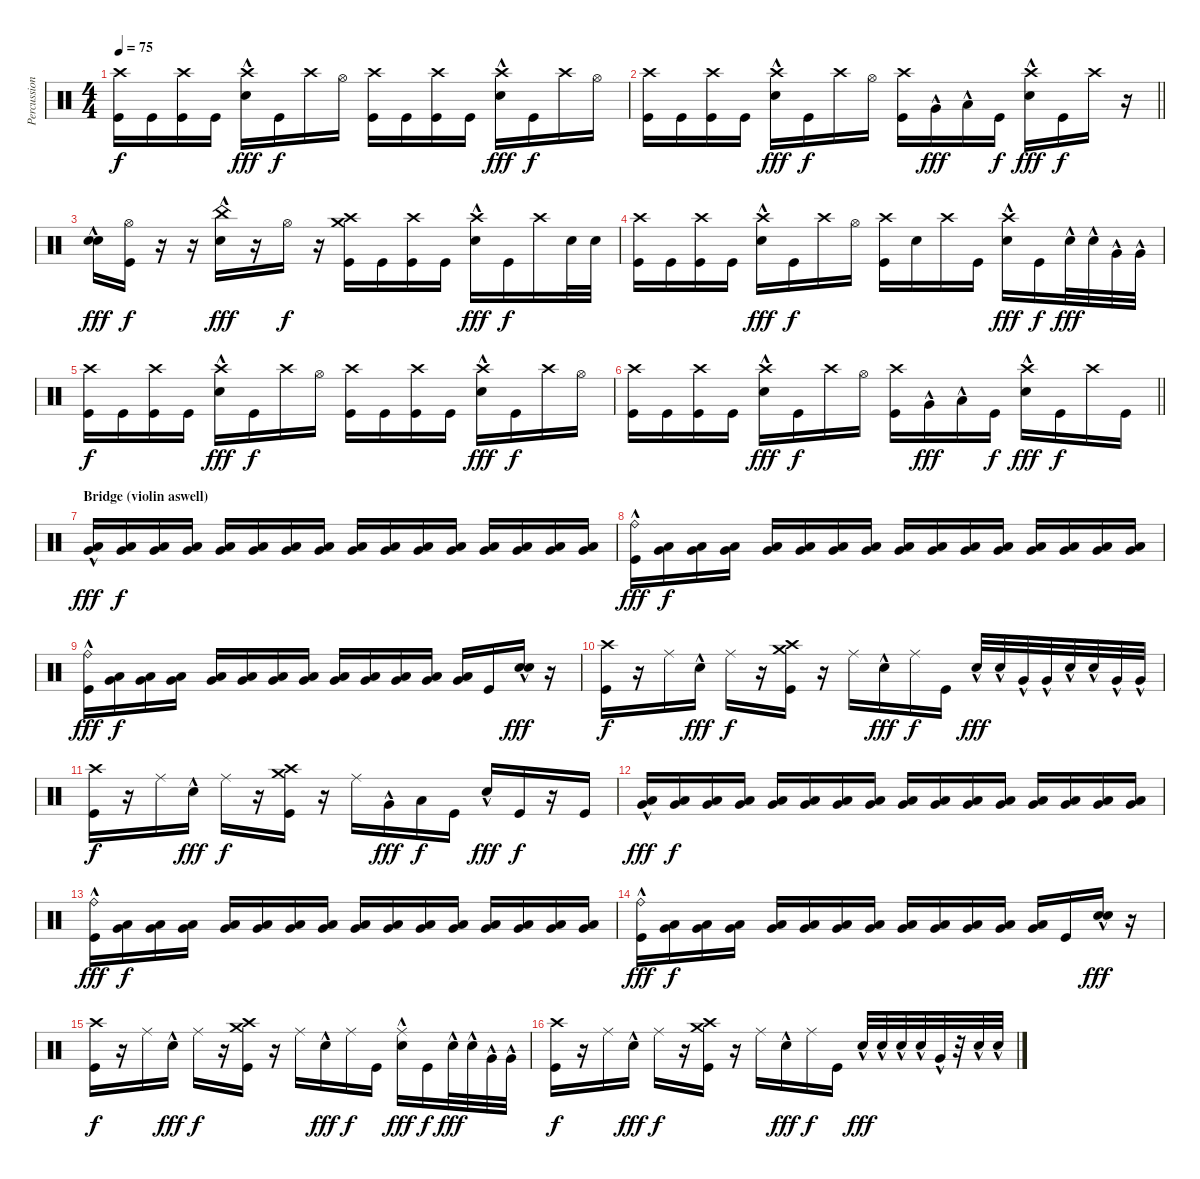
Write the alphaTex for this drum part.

\track ("Percussion" "Percussion") {instrument percussion}
\staff {score}
\articulation defaults
\ts (4 4)
\tempo 75
\clef neutral
\ks c
("Crash high (hit)" "Kick (hit)").16{dy f} "Kick (hit)".16 ("Crash high (hit)" "Kick (hit)").16 "Kick (hit)".16 ("Crash high (hit)" "Electric Snare (hit)"{hac}).16{dy fff} "Kick (hit)".16{dy f} "Crash high (hit)".16 "Hi-Hat (open)".16 ("Crash high (hit)" "Kick (hit)").16 "Kick (hit)".16 ("Crash high (hit)" "Kick (hit)").16 "Kick (hit)".16 ("Crash high (hit)" "Electric Snare (hit)"{hac}).16{dy fff} "Kick (hit)".16{dy f} "Crash high (hit)".16 "Hi-Hat (open)".16 |
\barLineRight lightlight
("Crash high (hit)" "Kick (hit)").16 "Kick (hit)".16 ("Crash high (hit)" "Kick (hit)").16 "Kick (hit)".16 ("Crash high (hit)" "Electric Snare (hit)"{hac}).16{dy fff} "Kick (hit)".16{dy f} "Crash high (hit)".16 "Hi-Hat (open)".16 ("Crash high (hit)" "Kick (hit)").16 "Very Low Tom (hit)"{hac}.16{dy fff} "Low Floor Tom (hit)"{hac}.16 "Kick (hit)".16{dy f} ("Crash high (hit)" "Electric Snare (hit)"{hac}).16{dy fff} "Kick (hit)".16{dy f} "Crash high (hit)".16 r.16 |
("Electric Snare (hit)" "Electric Snare (hit)"{hac}).16{dy fff} ("Hi-Hat (open)" "Kick (hit)").16{dy f} r.16 r.16 ("China (hit)" "Electric Snare (hit)"{hac}).16{dy fff} r.16 "Hi-Hat (open)".16{dy f} r.16 ("Crash high (hit)" "Crash medium (hit)" "Kick (hit)").16 "Kick (hit)".16 ("Crash high (hit)" "Kick (hit)").16 "Kick (hit)".16 ("Crash high (hit)" "Electric Snare (hit)"{hac}).16{dy fff} "Kick (hit)".16{dy f} "Crash high (hit)".16 "Electric Snare (hit)".32 "Electric Snare (hit)".32 |
("Crash high (hit)" "Kick (hit)").16 "Kick (hit)".16 ("Crash high (hit)" "Kick (hit)").16 "Kick (hit)".16 ("Crash high (hit)" "Electric Snare (hit)"{hac}).16{dy fff} "Kick (hit)".16{dy f} "Crash high (hit)".16 "Hi-Hat (open)".16 ("Crash high (hit)" "Kick (hit)").16 "Electric Snare (hit)".16 "Crash high (hit)".16 "Kick (hit)".16 ("Crash high (hit)" "Electric Snare (hit)"{hac}).16{dy fff} "Kick (hit)".16{dy f} "Electric Snare (hit)"{hac}.32{dy fff} "Electric Snare (hit)"{hac}.32 "Very Low Tom (hit)"{hac}.32 "Very Low Tom (hit)"{hac}.32 |
("Crash high (hit)" "Kick (hit)").16{dy f} "Kick (hit)".16 ("Crash high (hit)" "Kick (hit)").16 "Kick (hit)".16 ("Crash high (hit)" "Electric Snare (hit)"{hac}).16{dy fff} "Kick (hit)".16{dy f} "Crash high (hit)".16 "Hi-Hat (open)".16 ("Crash high (hit)" "Kick (hit)").16 "Kick (hit)".16 ("Crash high (hit)" "Kick (hit)").16 "Kick (hit)".16 ("Crash high (hit)" "Electric Snare (hit)"{hac}).16{dy fff} "Kick (hit)".16{dy f} "Crash high (hit)".16 "Hi-Hat (open)".16 |
\barLineRight lightlight
("Crash high (hit)" "Kick (hit)").16 "Kick (hit)".16 ("Crash high (hit)" "Kick (hit)").16 "Kick (hit)".16 ("Crash high (hit)" "Electric Snare (hit)"{hac}).16{dy fff} "Kick (hit)".16{dy f} "Crash high (hit)".16 "Hi-Hat (open)".16 ("Crash high (hit)" "Kick (hit)").16 "Very Low Tom (hit)"{hac}.16{dy fff} "Low Floor Tom (hit)"{hac}.16 "Kick (hit)".16{dy f} ("Crash high (hit)" "Electric Snare (hit)"{hac}).16{dy fff} "Kick (hit)".16{dy f} "Crash high (hit)".16 "Kick (hit)".16 |
\section ("" "Bridge (violin aswell)")
("Very Low Tom (hit)"{hac} "Low Tom (hit)"{hac}).16{dy fff} ("Very Low Tom (hit)" "Low Tom (hit)").16{dy f volume 9} ("Very Low Tom (hit)" "Low Tom (hit)").16 ("Very Low Tom (hit)" "Low Tom (hit)").16 ("Very Low Tom (hit)" "Low Tom (hit)").16 ("Very Low Tom (hit)" "Low Tom (hit)").16 ("Very Low Tom (hit)" "Low Tom (hit)").16 ("Very Low Tom (hit)" "Low Tom (hit)").16 ("Very Low Tom (hit)" "Low Tom (hit)").16 ("Very Low Tom (hit)" "Low Tom (hit)").16 ("Very Low Tom (hit)" "Low Tom (hit)").16 ("Very Low Tom (hit)" "Low Tom (hit)").16 ("Very Low Tom (hit)" "Low Tom (hit)").16 ("Very Low Tom (hit)" "Low Tom (hit)").16 ("Very Low Tom (hit)" "Low Tom (hit)").16 ("Very Low Tom (hit)" "Low Tom (hit)").16 |
("Ride (bell)"{hac} "Kick (hit)"{hac}).16{dy fff} ("Very Low Tom (hit)" "Low Tom (hit)").16{dy f volume 11} ("Very Low Tom (hit)" "Low Tom (hit)").16 ("Very Low Tom (hit)" "Low Tom (hit)").16 ("Very Low Tom (hit)" "Low Tom (hit)").16 ("Very Low Tom (hit)" "Low Tom (hit)").16 ("Very Low Tom (hit)" "Low Tom (hit)").16 ("Very Low Tom (hit)" "Low Tom (hit)").16 ("Very Low Tom (hit)" "Low Tom (hit)").16 ("Very Low Tom (hit)" "Low Tom (hit)").16 ("Very Low Tom (hit)" "Low Tom (hit)").16 ("Very Low Tom (hit)" "Low Tom (hit)").16 ("Very Low Tom (hit)" "Low Tom (hit)").16 ("Very Low Tom (hit)" "Low Tom (hit)").16 ("Very Low Tom (hit)" "Low Tom (hit)").16 ("Very Low Tom (hit)" "Low Tom (hit)").16 |
("Ride (bell)"{hac} "Kick (hit)"{hac}).16{dy fff} ("Very Low Tom (hit)" "Low Tom (hit)").16{dy f} ("Very Low Tom (hit)" "Low Tom (hit)").16 ("Very Low Tom (hit)" "Low Tom (hit)").16 ("Very Low Tom (hit)" "Low Tom (hit)").16 ("Very Low Tom (hit)" "Low Tom (hit)").16 ("Very Low Tom (hit)" "Low Tom (hit)").16 ("Very Low Tom (hit)" "Low Tom (hit)").16 ("Very Low Tom (hit)" "Low Tom (hit)").16 ("Very Low Tom (hit)" "Low Tom (hit)").16 ("Very Low Tom (hit)" "Low Tom (hit)").16 ("Very Low Tom (hit)" "Low Tom (hit)").16 ("Very Low Tom (hit)" "Low Tom (hit)").16 "Kick (hit)".16 ("Electric Snare (hit)"{hac} "Electric Snare (hit)"{hac}).16{dy fff} r.16 |
("Crash high (hit)" "Kick (hit)").16{dy f} r.16 "Ride (middle)".16 "Electric Snare (hit)"{hac}.16{dy fff} "Ride (middle)".16{dy f} r.16 ("Crash medium (hit)" "Crash high (hit)" "Kick (hit)").16 r.16 "Ride (middle)".16 "Electric Snare (hit)"{hac}.16{dy fff} "Ride (middle)".16{dy f} "Kick (hit)".16 "Electric Snare (hit)"{hac}.32{dy fff} "Electric Snare (hit)"{hac}.32 "Very Low Tom (hit)"{hac}.32 "Very Low Tom (hit)"{hac}.32 "Electric Snare (hit)"{hac}.32 "Electric Snare (hit)"{hac}.32 "Very Low Tom (hit)"{hac}.32 "Very Low Tom (hit)"{hac}.32 |
("Crash high (hit)" "Kick (hit)").16{dy f} r.16 "Ride (middle)".16 "Electric Snare (hit)"{hac}.16{dy fff} "Ride (middle)".16{dy f} r.16 ("Crash medium (hit)" "Crash high (hit)" "Kick (hit)").16 r.16 "Ride (middle)".16 "Very Low Tom (hit)"{hac}.16{dy fff} "Low Floor Tom (hit)".16{dy f} "Kick (hit)".16 "Electric Snare (hit)"{hac}.16{dy fff} "Kick (hit)".16{dy f} r.16 "Kick (hit)".16 |
("Very Low Tom (hit)"{hac} "Low Tom (hit)"{hac}).16{dy fff} ("Very Low Tom (hit)" "Low Tom (hit)").16{dy f volume 9} ("Very Low Tom (hit)" "Low Tom (hit)").16 ("Very Low Tom (hit)" "Low Tom (hit)").16 ("Very Low Tom (hit)" "Low Tom (hit)").16 ("Very Low Tom (hit)" "Low Tom (hit)").16 ("Very Low Tom (hit)" "Low Tom (hit)").16 ("Very Low Tom (hit)" "Low Tom (hit)").16 ("Very Low Tom (hit)" "Low Tom (hit)").16 ("Very Low Tom (hit)" "Low Tom (hit)").16 ("Very Low Tom (hit)" "Low Tom (hit)").16 ("Very Low Tom (hit)" "Low Tom (hit)").16 ("Very Low Tom (hit)" "Low Tom (hit)").16 ("Very Low Tom (hit)" "Low Tom (hit)").16 ("Very Low Tom (hit)" "Low Tom (hit)").16 ("Very Low Tom (hit)" "Low Tom (hit)").16 |
("Ride (bell)"{hac} "Kick (hit)"{hac}).16{dy fff} ("Very Low Tom (hit)" "Low Tom (hit)").16{dy f volume 11} ("Very Low Tom (hit)" "Low Tom (hit)").16 ("Very Low Tom (hit)" "Low Tom (hit)").16 ("Very Low Tom (hit)" "Low Tom (hit)").16 ("Very Low Tom (hit)" "Low Tom (hit)").16 ("Very Low Tom (hit)" "Low Tom (hit)").16 ("Very Low Tom (hit)" "Low Tom (hit)").16 ("Very Low Tom (hit)" "Low Tom (hit)").16 ("Very Low Tom (hit)" "Low Tom (hit)").16 ("Very Low Tom (hit)" "Low Tom (hit)").16 ("Very Low Tom (hit)" "Low Tom (hit)").16 ("Very Low Tom (hit)" "Low Tom (hit)").16 ("Very Low Tom (hit)" "Low Tom (hit)").16 ("Very Low Tom (hit)" "Low Tom (hit)").16 ("Very Low Tom (hit)" "Low Tom (hit)").16 |
("Ride (bell)"{hac} "Kick (hit)"{hac}).16{dy fff} ("Very Low Tom (hit)" "Low Tom (hit)").16{dy f} ("Very Low Tom (hit)" "Low Tom (hit)").16 ("Very Low Tom (hit)" "Low Tom (hit)").16 ("Very Low Tom (hit)" "Low Tom (hit)").16 ("Very Low Tom (hit)" "Low Tom (hit)").16 ("Very Low Tom (hit)" "Low Tom (hit)").16 ("Very Low Tom (hit)" "Low Tom (hit)").16 ("Very Low Tom (hit)" "Low Tom (hit)").16 ("Very Low Tom (hit)" "Low Tom (hit)").16 ("Very Low Tom (hit)" "Low Tom (hit)").16 ("Very Low Tom (hit)" "Low Tom (hit)").16 ("Very Low Tom (hit)" "Low Tom (hit)").16 "Kick (hit)".16 ("Electric Snare (hit)"{hac} "Electric Snare (hit)"{hac}).16{dy fff} r.16 |
("Crash high (hit)" "Kick (hit)").16{dy f} r.16 "Ride (middle)".16 "Electric Snare (hit)"{hac}.16{dy fff} "Ride (middle)".16{dy f} r.16 ("Crash medium (hit)" "Crash high (hit)" "Kick (hit)").16 r.16 "Ride (middle)".16 "Electric Snare (hit)"{hac}.16{dy fff} "Ride (middle)".16{dy f} "Kick (hit)".16 ("Ride (middle)" "Electric Snare (hit)"{hac}).16{dy fff} "Kick (hit)".16{dy f} "Electric Snare (hit)"{hac}.32{dy fff} "Electric Snare (hit)"{hac}.32 "Very Low Tom (hit)"{hac}.32 "Very Low Tom (hit)"{hac}.32 |
("Crash high (hit)" "Kick (hit)").16{dy f} r.16 "Ride (middle)".16 "Electric Snare (hit)"{hac}.16{dy fff} "Ride (middle)".16{dy f} r.16 ("Crash medium (hit)" "Crash high (hit)" "Kick (hit)").16 r.16 "Ride (middle)".16 "Electric Snare (hit)"{hac}.16{dy fff} "Ride (middle)".16{dy f} "Kick (hit)".16 "Electric Snare (hit)"{hac}.32{dy fff} "Electric Snare (hit)"{hac}.32 "Electric Snare (hit)"{hac}.32 "Electric Snare (hit)"{hac}.32 "Very Low Tom (hit)"{hac}.32 r.32 "Electric Snare (hit)"{hac}.32 "Electric Snare (hit)"{hac}.32
